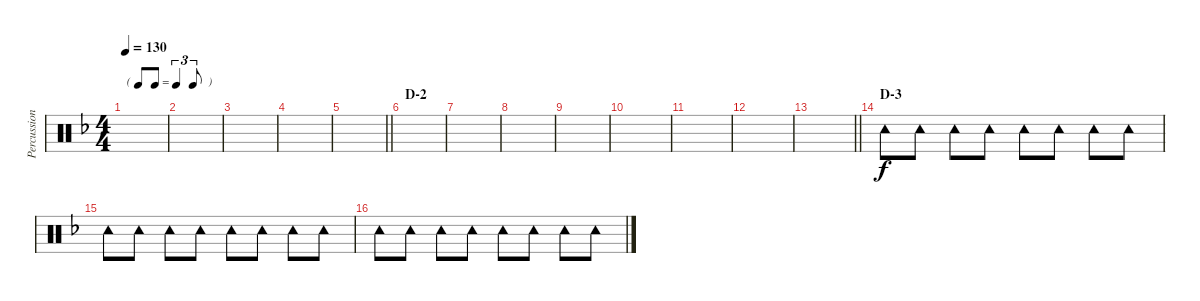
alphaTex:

\track ("Percussion II (Tainaka Ritsu)" "Percussion") {instrument percussion}
\staff {score}
\articulation defaults
\ts (4 4)
\tf triplet8th
\tempo 130
\clef neutral
\ks f
|
|
|
|
\barLineRight lightlight
|
\section ("" "D-2")
|
|
|
|
|
|
|
\barLineRight lightlight
|
\section ("" "D-3")
"Tambourine (hit)".8 "Tambourine (hit)".8 "Tambourine (hit)".8 "Tambourine (hit)".8 "Tambourine (hit)".8 "Tambourine (hit)".8 "Tambourine (hit)".8 "Tambourine (hit)".8 |
"Tambourine (hit)".8 "Tambourine (hit)".8 "Tambourine (hit)".8 "Tambourine (hit)".8 "Tambourine (hit)".8 "Tambourine (hit)".8 "Tambourine (hit)".8 "Tambourine (hit)".8 |
"Tambourine (hit)".8 "Tambourine (hit)".8 "Tambourine (hit)".8 "Tambourine (hit)".8 "Tambourine (hit)".8 "Tambourine (hit)".8 "Tambourine (hit)".8 "Tambourine (hit)".8
